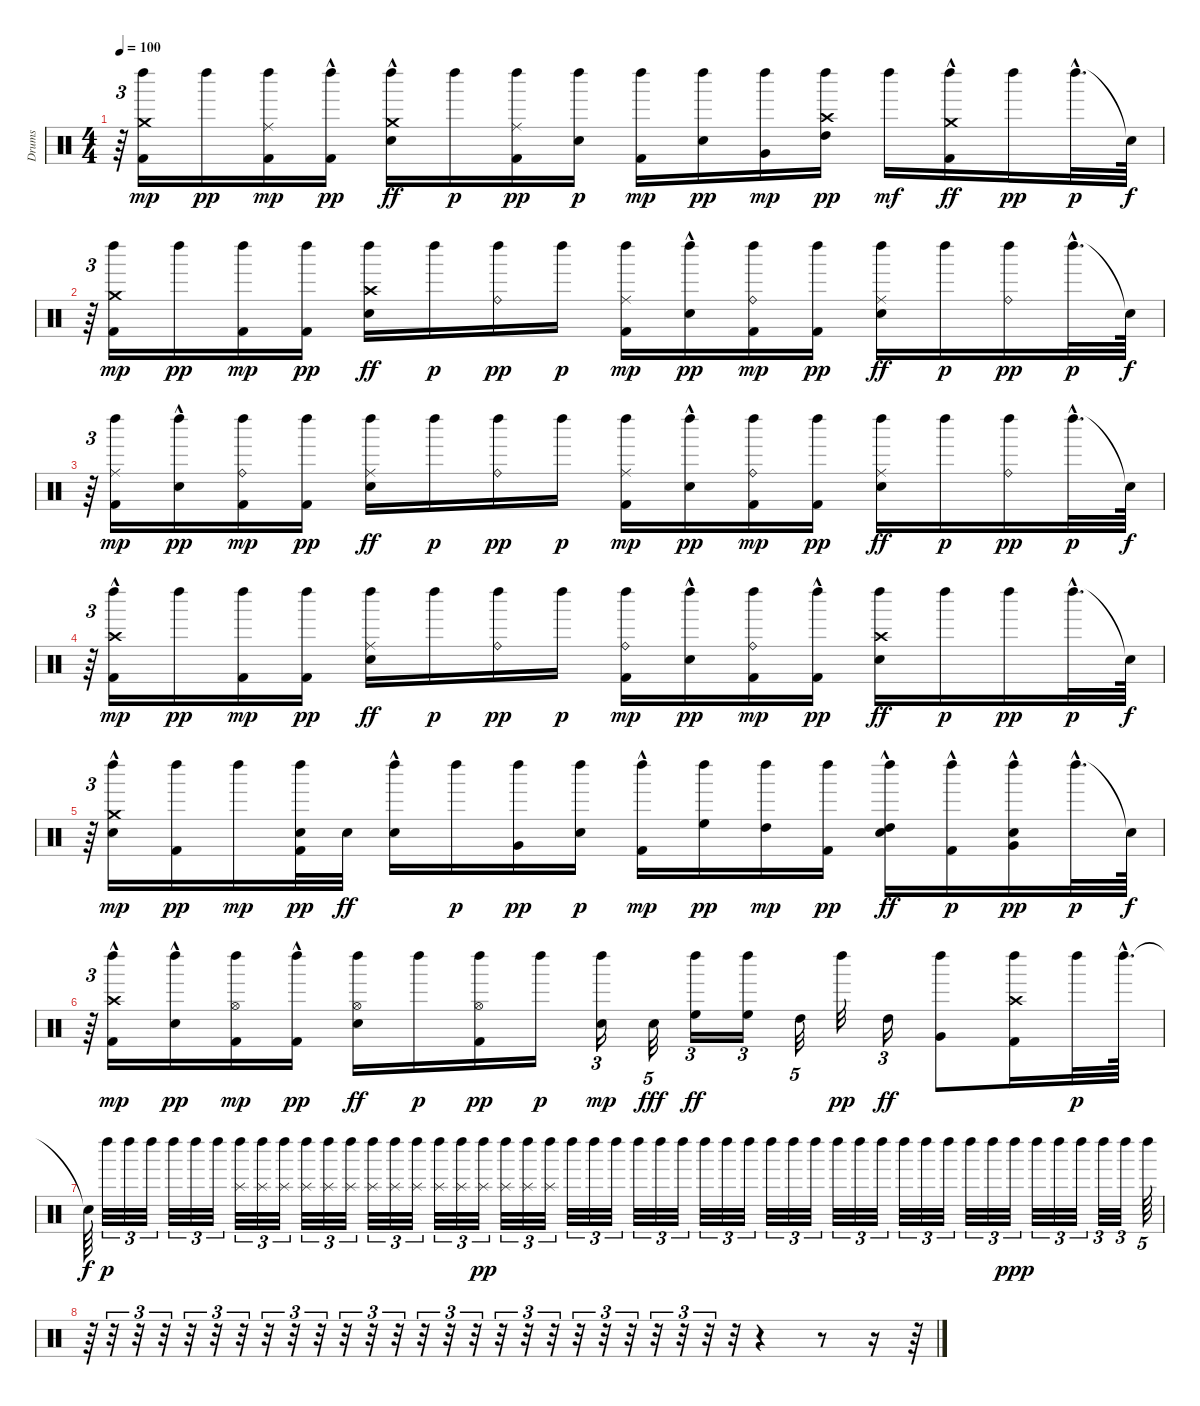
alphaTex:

\track ("Drums" "Drums") {instrument percussion}
\staff {score}
\articulation defaults
\ts (4 4)
\tempo 100
\clef neutral
\ks c
r.64{tu (3 2) dy f} ("Crash medium (hit)" "Kick (hit) 2" "Left Maraca (hit)").16{dy mp} "Left Maraca (hit)".16{dy pp} ("Ride (middle)" "Kick (hit) 2" "Left Maraca (hit)").16{dy mp} ("Kick (hit) 2"{hac} "Left Maraca (hit)").16{dy pp} ("Crash medium (hit)" "Snare (hit) 2"{hac} "Left Maraca (hit)").16{dy ff} "Left Maraca (hit)".16{dy p} ("Ride (middle)" "Kick (hit) 2" "Left Maraca (hit)").16{dy pp} ("Snare (hit) 2" "Left Maraca (hit)").16{dy p} ("Kick (hit) 2" "Left Maraca (hit)").16{dy mp} ("Snare (hit) 2" "Left Maraca (hit)").16{dy pp} ("Very Low Tom (hit)" "Left Maraca (hit)").16{dy mp} ("Crash high (hit)" "High Tom (hit)" "Left Maraca (hit)").16{dy pp} "Left Maraca (hit)".16{dy mf} ("Kick (hit) 2"{hac} "Crash medium (hit)"{hac} "Left Maraca (hit)").16{dy ff} "Left Maraca (hit)".16{dy pp} "Left Maraca (hit)"{hac}.32{d dy p} "Snare (hit)"{t}.64{dy f} |
r.64{tu (3 2)} ("Crash medium (hit)" "Kick (hit) 2" "Left Maraca (hit)").16{dy mp} "Left Maraca (hit)".16{dy pp} ("Kick (hit) 2" "Left Maraca (hit)").16{dy mp} ("Kick (hit) 2" "Left Maraca (hit)").16{dy pp} ("Crash high (hit)" "Snare (hit) 2" "Left Maraca (hit)").16{dy ff} "Left Maraca (hit)".16{dy p} ("Ride (bell)" "Left Maraca (hit)").16{dy pp} "Left Maraca (hit)".16{dy p} ("Ride (middle)" "Kick (hit) 2" "Left Maraca (hit)").16{dy mp} ("Snare (hit) 2"{hac} "Left Maraca (hit)").16{dy pp} ("Ride (bell)" "Kick (hit) 2" "Left Maraca (hit)").16{dy mp} ("Kick (hit) 2" "Left Maraca (hit)").16{dy pp} ("Ride (middle)" "Snare (hit) 2" "Left Maraca (hit)").16{dy ff} "Left Maraca (hit)".16{dy p} ("Ride (bell)" "Left Maraca (hit)").16{dy pp} "Left Maraca (hit)"{hac}.32{d dy p} "Snare (hit)"{t}.64{dy f} |
r.64{tu (3 2)} ("Ride (middle)" "Kick (hit) 2" "Left Maraca (hit)").16{dy mp} ("Snare (hit) 2"{hac} "Left Maraca (hit)").16{dy pp} ("Ride (bell)" "Kick (hit) 2" "Left Maraca (hit)").16{dy mp} ("Kick (hit) 2" "Left Maraca (hit)").16{dy pp} ("Ride (middle)" "Snare (hit) 2" "Left Maraca (hit)").16{dy ff} "Left Maraca (hit)".16{dy p} ("Ride (bell)" "Left Maraca (hit)").16{dy pp} "Left Maraca (hit)".16{dy p} ("Ride (middle)" "Kick (hit) 2" "Left Maraca (hit)").16{dy mp} ("Snare (hit) 2"{hac} "Left Maraca (hit)").16{dy pp} ("Ride (bell)" "Kick (hit) 2" "Left Maraca (hit)").16{dy mp} ("Kick (hit) 2" "Left Maraca (hit)").16{dy pp} ("Ride (middle)" "Snare (hit) 2" "Left Maraca (hit)").16{dy ff} "Left Maraca (hit)".16{dy p} ("Ride (bell)" "Left Maraca (hit)").16{dy pp} "Left Maraca (hit)"{hac}.32{d dy p} "Snare (hit)"{t}.64{dy f} |
r.64{tu (3 2)} ("Crash high (hit)"{hac} "Kick (hit) 2" "Left Maraca (hit)").16{dy mp} "Left Maraca (hit)".16{dy pp} ("Kick (hit) 2" "Left Maraca (hit)").16{dy mp} ("Kick (hit) 2" "Left Maraca (hit)").16{dy pp} ("Ride (middle)" "Snare (hit) 2" "Left Maraca (hit)").16{dy ff} "Left Maraca (hit)".16{dy p} ("Ride (bell)" "Left Maraca (hit)").16{dy pp} "Left Maraca (hit)".16{dy p} ("Ride (bell)" "Kick (hit) 2" "Left Maraca (hit)").16{dy mp} ("Snare (hit) 2"{hac} "Left Maraca (hit)").16{dy pp} ("Ride (bell)" "Kick (hit) 2" "Left Maraca (hit)").16{dy mp} ("Kick (hit) 2"{hac} "Left Maraca (hit)").16{dy pp} ("Crash high (hit)" "Snare (hit) 2" "Left Maraca (hit)").16{dy ff} "Left Maraca (hit)".16{dy p} "Left Maraca (hit)".16{dy pp} "Left Maraca (hit)"{hac}.32{d dy p} "Snare (hit)"{t}.64{dy f} |
r.64{tu (3 2)} ("Crash medium (hit)" "Snare (hit) 2"{hac} "Left Maraca (hit)").16{dy mp} ("Kick (hit) 2" "Left Maraca (hit)").16{dy pp} "Left Maraca (hit)".16{dy mp} ("Kick (hit) 2" "Snare (hit) 2" "Left Maraca (hit)").32{dy pp} "Snare (hit) 2".32{dy ff} ("Snare (hit) 2"{hac} "Left Maraca (hit)").16 "Left Maraca (hit)".16{dy p} ("Very Low Tom (hit)" "Left Maraca (hit)").16{dy pp} ("Snare (hit) 2" "Left Maraca (hit)").16{dy p} ("Kick (hit) 2"{hac} "Left Maraca (hit)").16{dy mp} ("High Floor Tom (hit)" "Left Maraca (hit)").16{dy pp} ("High Tom (hit)" "Left Maraca (hit)").16{dy mp} ("Kick (hit) 2" "Left Maraca (hit)").16{dy pp} ("Snare (hit) 2" "Left Maraca (hit)" "High Tom (hit)"{hac}).16{dy ff} ("Kick (hit) 2"{hac} "Left Maraca (hit)").16{dy p} ("Snare (hit) 2"{hac} "Very Low Tom (hit)"{hac} "Left Maraca (hit)").16{dy pp} "Left Maraca (hit)"{hac}.32{d dy p} "Snare (hit)"{t}.64{dy f} |
r.64{tu (3 2)} ("Crash high (hit)"{hac} "Kick (hit) 2" "Left Maraca (hit)").16{dy mp} ("Snare (hit) 2"{hac} "Left Maraca (hit)").16{dy pp} ("Kick (hit) 2" "Hi-Hat (open)" "Left Maraca (hit)").16{dy mp} ("Kick (hit) 2"{hac} "Left Maraca (hit)").16{dy pp} ("Snare (hit) 2" "Hi-Hat (open)" "Left Maraca (hit)").16{dy ff} "Left Maraca (hit)".16{dy p} ("Kick (hit) 2" "Hi-Hat (open)" "Left Maraca (hit)").16{dy pp} "Left Maraca (hit)".16{dy p} ("Snare (hit) 2" "Left Maraca (hit)").16{tu (3 2) dy mp} "Snare (hit) 2".32{tu (5 4) dy fff} ("Left Maraca (hit)" "High Floor Tom (hit)").16{tu (3 2) dy ff} ("High Floor Tom (hit)" "Left Maraca (hit)").16{tu (3 2)} "High Tom (hit)".32{tu (5 4)} "Left Maraca (hit)".32{dy pp} "High Tom (hit)".16{tu (3 2) dy ff} ("Very Low Tom (hit)" "Left Maraca (hit)").8 ("Crash high (hit)" "Kick (hit) 2" "Left Maraca (hit)").16 "Left Maraca (hit)".32{dy p} "Left Maraca (hit)"{hac}.64{d} |
"Snare (hit)"{t}.64{dy f} "Left Maraca (hit)".32{tu (3 2) dy p} "Left Maraca (hit)".32{tu (3 2)} "Left Maraca (hit)".32{tu (3 2)} "Left Maraca (hit)".32{tu (3 2)} "Left Maraca (hit)".32{tu (3 2)} "Left Maraca (hit)".32{tu (3 2)} ("Splash (hit)" "Left Maraca (hit)").32{tu (3 2)} ("Splash (hit)" "Left Maraca (hit)").32{tu (3 2)} ("Splash (hit)" "Left Maraca (hit)").32{tu (3 2)} ("Splash (hit)" "Left Maraca (hit)").32{tu (3 2)} ("Splash (hit)" "Left Maraca (hit)").32{tu (3 2)} ("Splash (hit)" "Left Maraca (hit)").32{tu (3 2)} ("Splash (hit)" "Left Maraca (hit)").32{tu (3 2)} ("Splash (hit)" "Left Maraca (hit)").32{tu (3 2)} ("Splash (hit)" "Left Maraca (hit)").32{tu (3 2)} ("Splash (hit)" "Left Maraca (hit)").32{tu (3 2)} ("Splash (hit)" "Left Maraca (hit)").32{tu (3 2)} ("Splash (hit)" "Left Maraca (hit)").32{tu (3 2) dy pp} ("Splash (hit)" "Left Maraca (hit)").32{tu (3 2)} ("Splash (hit)" "Left Maraca (hit)").32{tu (3 2)} ("Splash (hit)" "Left Maraca (hit)").32{tu (3 2)} "Left Maraca (hit)".32{tu (3 2)} "Left Maraca (hit)".32{tu (3 2)} "Left Maraca (hit)".32{tu (3 2)} "Left Maraca (hit)".32{tu (3 2)} "Left Maraca (hit)".32{tu (3 2)} "Left Maraca (hit)".32{tu (3 2)} "Left Maraca (hit)".32{tu (3 2)} "Left Maraca (hit)".32{tu (3 2)} "Left Maraca (hit)".32{tu (3 2)} "Left Maraca (hit)".32{tu (3 2)} "Left Maraca (hit)".32{tu (3 2)} "Left Maraca (hit)".32{tu (3 2)} "Left Maraca (hit)".32{tu (3 2)} "Left Maraca (hit)".32{tu (3 2)} "Left Maraca (hit)".32{tu (3 2)} "Left Maraca (hit)".32{tu (3 2)} "Left Maraca (hit)".32{tu (3 2)} "Left Maraca (hit)".32{tu (3 2)} "Left Maraca (hit)".32{tu (3 2)} "Left Maraca (hit)".32{tu (3 2)} "Left Maraca (hit)".32{tu (3 2) dy ppp} "Left Maraca (hit)".32{tu (3 2)} "Left Maraca (hit)".32{tu (3 2)} "Left Maraca (hit)".32{tu (3 2)} "Left Maraca (hit)".32{tu (3 2)} "Left Maraca (hit)".32{tu (3 2)} "Left Maraca (hit)".64{tu (5 4)} |
r.64 r.32{tu (3 2)} r.32{tu (3 2)} r.32{tu (3 2)} r.32{tu (3 2)} r.32{tu (3 2)} r.32{tu (3 2)} r.32{tu (3 2)} r.32{tu (3 2)} r.32{tu (3 2)} r.32{tu (3 2)} r.32{tu (3 2)} r.32{tu (3 2)} r.32{tu (3 2)} r.32{tu (3 2)} r.32{tu (3 2)} r.32{tu (3 2)} r.32{tu (3 2)} r.32{tu (3 2)} r.32{tu (3 2)} r.32{tu (3 2)} r.32{tu (3 2)} r.32{tu (3 2)} r.32{tu (3 2)} r.32{tu (3 2)} r.32{tu (3 2)} r.4 r.8 r.16 r.64
